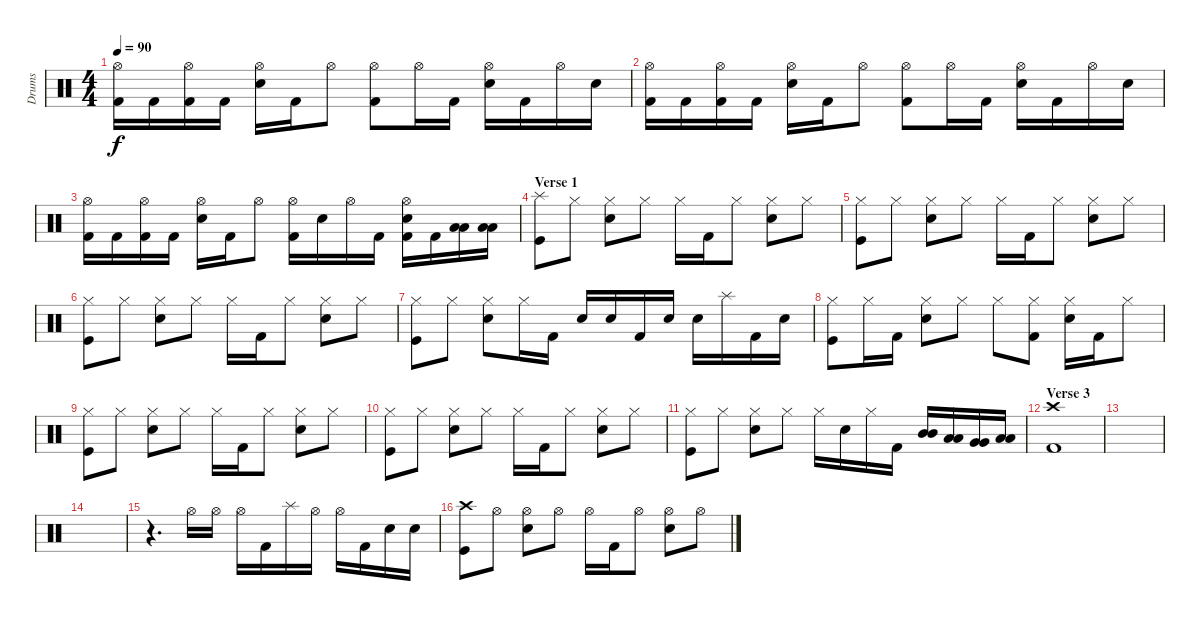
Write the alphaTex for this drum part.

\track ("Drums" "Drums") {instrument percussion}
\staff {score}
\articulation defaults
\ts (4 4)
\tempo 90
\clef neutral
\ks c
("Hi-Hat (open)" "Kick (hit) 2").16{dy f} "Kick (hit) 2".16 ("Hi-Hat (open)" "Kick (hit) 2").16 "Kick (hit) 2".16 ("Hi-Hat (open)" "Electric Snare (hit)").16 "Kick (hit) 2".16 "Hi-Hat (open)".8 ("Hi-Hat (open)" "Kick (hit) 2").8 "Hi-Hat (open)".16 "Kick (hit) 2".16 ("Hi-Hat (open)" "Electric Snare (hit)").16 "Kick (hit) 2".16 "Hi-Hat (open)".16 "Electric Snare (hit)".16 |
("Hi-Hat (open)" "Kick (hit) 2").16 "Kick (hit) 2".16 ("Hi-Hat (open)" "Kick (hit) 2").16 "Kick (hit) 2".16 ("Hi-Hat (open)" "Electric Snare (hit)").16 "Kick (hit) 2".16 "Hi-Hat (open)".8 ("Hi-Hat (open)" "Kick (hit) 2").8 "Hi-Hat (open)".16 "Kick (hit) 2".16 ("Hi-Hat (open)" "Electric Snare (hit)").16 "Kick (hit) 2".16 "Hi-Hat (open)".16 "Electric Snare (hit)".16 |
("Hi-Hat (open)" "Kick (hit) 2").16 "Kick (hit) 2".16 ("Hi-Hat (open)" "Kick (hit) 2").16 "Kick (hit) 2".16 ("Hi-Hat (open)" "Electric Snare (hit)").16 "Kick (hit) 2".16 "Hi-Hat (open)".8 ("Hi-Hat (open)" "Kick (hit) 2").16 "Electric Snare (hit)".16 "Hi-Hat (open)".16 "Kick (hit) 2".16 ("Hi-Hat (open)" "Electric Snare (hit)" "Kick (hit) 2").16 "Kick (hit) 2".16 ("Low Floor Tom (hit)" "Low Floor Tom (hit)").16 ("Low Floor Tom (hit)" "Low Floor Tom (hit)").16 |
\section ("" "Verse 1")
("Splash (hit)" "Kick (hit)").8{volume 10} "Hi-Hat (closed)".8 ("Hi-Hat (closed)" "Snare (hit) 2").8 "Hi-Hat (closed)".8 "Hi-Hat (closed)".16 "Kick (hit) 2".16 "Hi-Hat (closed)".8 ("Hi-Hat (closed)" "Snare (hit) 2").8 "Hi-Hat (closed)".8 |
("Hi-Hat (closed)" "Kick (hit)").8{volume 10} "Hi-Hat (closed)".8 ("Hi-Hat (closed)" "Snare (hit) 2").8 "Hi-Hat (closed)".8 "Hi-Hat (closed)".16 "Kick (hit) 2".16 "Hi-Hat (closed)".8 ("Hi-Hat (closed)" "Snare (hit) 2").8 "Hi-Hat (closed)".8 |
("Hi-Hat (closed)" "Kick (hit)").8{volume 10} "Hi-Hat (closed)".8 ("Hi-Hat (closed)" "Snare (hit) 2").8 "Hi-Hat (closed)".8 "Hi-Hat (closed)".16 "Kick (hit) 2".16 "Hi-Hat (closed)".8 ("Hi-Hat (closed)" "Snare (hit) 2").8 "Hi-Hat (closed)".8 |
("Hi-Hat (closed)" "Kick (hit)").8{volume 10} "Hi-Hat (closed)".8 ("Hi-Hat (closed)" "Snare (hit) 2").8 "Hi-Hat (closed)".16 "Kick (hit) 2".16 "Snare (hit) 2".16 "Snare (hit) 2".16 "Kick (hit) 2".16 "Snare (hit) 2".16 "Snare (hit) 2".16 "Splash (hit)".16 "Kick (hit) 2".16 "Snare (hit) 2".16 |
("Hi-Hat (closed)" "Kick (hit)").8{volume 10} "Hi-Hat (closed)".16 "Kick (hit) 2".16 ("Hi-Hat (closed)" "Snare (hit) 2").8 "Hi-Hat (closed)".8 "Hi-Hat (closed)".8 ("Hi-Hat (closed)" "Kick (hit) 2").8 ("Hi-Hat (closed)" "Snare (hit) 2").16 "Kick (hit) 2".16 "Hi-Hat (closed)".8 |
("Hi-Hat (closed)" "Kick (hit)").8{volume 10} "Hi-Hat (closed)".8 ("Hi-Hat (closed)" "Snare (hit) 2").8 "Hi-Hat (closed)".8 "Hi-Hat (closed)".16 "Kick (hit) 2".16 "Hi-Hat (closed)".8 ("Hi-Hat (closed)" "Snare (hit) 2").8 "Hi-Hat (closed)".8 |
("Hi-Hat (closed)" "Kick (hit)").8{volume 10} "Hi-Hat (closed)".8 ("Hi-Hat (closed)" "Snare (hit) 2").8 "Hi-Hat (closed)".8 "Hi-Hat (closed)".16 "Kick (hit) 2".16 "Hi-Hat (closed)".8 ("Hi-Hat (closed)" "Snare (hit) 2").8 "Hi-Hat (closed)".8 |
("Hi-Hat (closed)" "Kick (hit)").8{volume 10} "Hi-Hat (closed)".8 ("Hi-Hat (closed)" "Snare (hit) 2").8 "Hi-Hat (closed)".8 "Hi-Hat (closed)".16 "Snare (hit) 2".16 "Hi-Hat (closed)".16 "Kick (hit) 2".16 ("Mid Tom (hit)" "Mid Tom (hit)").16 ("Low Tom (hit)" "Low Tom (hit)").16 ("Very Low Tom (hit)" "Very Low Tom (hit)").16 ("Low Floor Tom (hit)" "Low Floor Tom (hit)").16 |
\section ("" "Verse 3")
("Crash high (hit)" "Kick (hit) 2").1 |
|
|
r.4{d volume 16} "Hi-Hat (open)".16 "Hi-Hat (open)".16 "Hi-Hat (open)".16 "Kick (hit) 2".16 "Splash (hit)".16 "Hi-Hat (open)".16 "Hi-Hat (open)".16 "Kick (hit) 2".16 "Electric Snare (hit)".16 "Electric Snare (hit)".16 |
("Crash high (hit)" "Kick (hit)").8 "Hi-Hat (open)".8 ("Hi-Hat (open)" "Snare (hit) 2").8 "Hi-Hat (open)".8 "Hi-Hat (open)".16 "Kick (hit) 2".16 "Hi-Hat (open)".8 ("Hi-Hat (open)" "Snare (hit) 2").8 "Hi-Hat (open)".8
